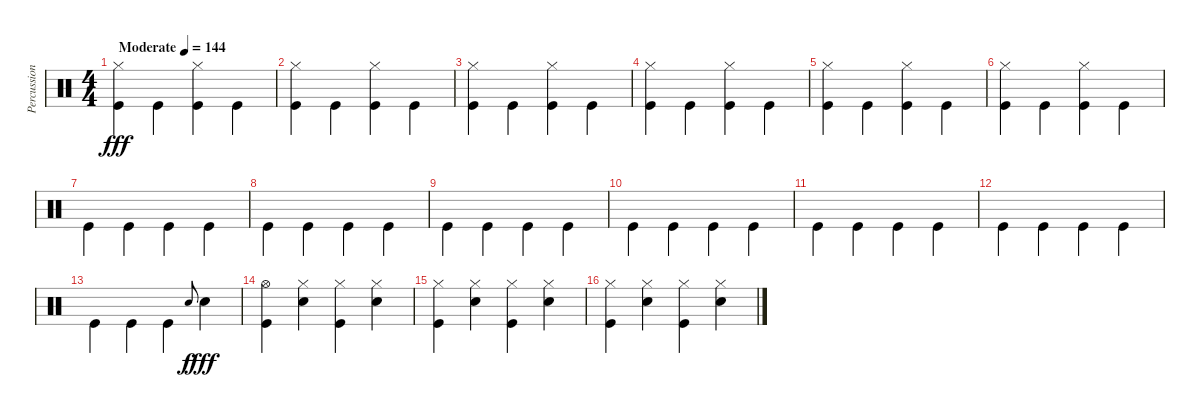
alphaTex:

\track ("Percussions" "Percussion") {instrument percussion}
\staff {score}
\articulation defaults
\ts (4 4)
\tempo (144 "Moderate")
\clef neutral
\ks c
("Hi-Hat (closed)" "Kick (hit)").4{dy fff beam Down} "Kick (hit)".4{beam Down} ("Hi-Hat (closed)" "Kick (hit)").4 "Kick (hit)".4{beam Down} |
("Hi-Hat (closed)" "Kick (hit)").4 "Kick (hit)".4{beam Down} ("Hi-Hat (closed)" "Kick (hit)").4 "Kick (hit)".4{beam Down} |
("Hi-Hat (closed)" "Kick (hit)").4{beam Down} "Kick (hit)".4{beam Down} ("Hi-Hat (closed)" "Kick (hit)").4 "Kick (hit)".4{beam Down} |
("Hi-Hat (closed)" "Kick (hit)").4 "Kick (hit)".4{beam Down} ("Hi-Hat (closed)" "Kick (hit)").4 "Kick (hit)".4{beam Down} |
("Hi-Hat (closed)" "Kick (hit)").4 "Kick (hit)".4{beam Down} ("Hi-Hat (closed)" "Kick (hit)").4 "Kick (hit)".4{beam Down} |
("Hi-Hat (closed)" "Kick (hit)").4 "Kick (hit)".4{beam Down} ("Hi-Hat (closed)" "Kick (hit)").4 "Kick (hit)".4{beam Down} |
"Kick (hit)".4{beam Down} "Kick (hit)".4{beam Down} "Kick (hit)".4{beam Down} "Kick (hit)".4{beam Down} |
"Kick (hit)".4{beam Down} "Kick (hit)".4{beam Down} "Kick (hit)".4{beam Down} "Kick (hit)".4{beam Down} |
"Kick (hit)".4{beam Down} "Kick (hit)".4{beam Down} "Kick (hit)".4{beam Down} "Kick (hit)".4{beam Down} |
"Kick (hit)".4{beam Down} "Kick (hit)".4{beam Down} "Kick (hit)".4{beam Down} "Kick (hit)".4{beam Down} |
"Kick (hit)".4{beam Down} "Kick (hit)".4{beam Down} "Kick (hit)".4{beam Down} "Kick (hit)".4{beam Down} |
"Kick (hit)".4{beam Down} "Kick (hit)".4{beam Down} "Kick (hit)".4{beam Down} "Kick (hit)".4{beam Down} |
"Kick (hit)".4{beam Down} "Kick (hit)".4{beam Down} "Kick (hit)".4{beam Down} "Snare (hit) 2".8{gr onbeat dy f} "Snare (hit) 2".4{dy fff beam Down} |
("Hi-Hat (open)" "Kick (hit)").4 ("Hi-Hat (closed)" "Snare (hit) 2").4 ("Hi-Hat (closed)" "Kick (hit)").4 ("Hi-Hat (closed)" "Snare (hit) 2").4 |
("Hi-Hat (closed)" "Kick (hit)").4 ("Hi-Hat (closed)" "Snare (hit) 2").4 ("Hi-Hat (closed)" "Kick (hit)").4 ("Hi-Hat (closed)" "Snare (hit) 2").4 |
("Hi-Hat (closed)" "Kick (hit)").4 ("Hi-Hat (closed)" "Snare (hit) 2").4 ("Hi-Hat (closed)" "Kick (hit)").4 ("Hi-Hat (closed)" "Snare (hit) 2").4
